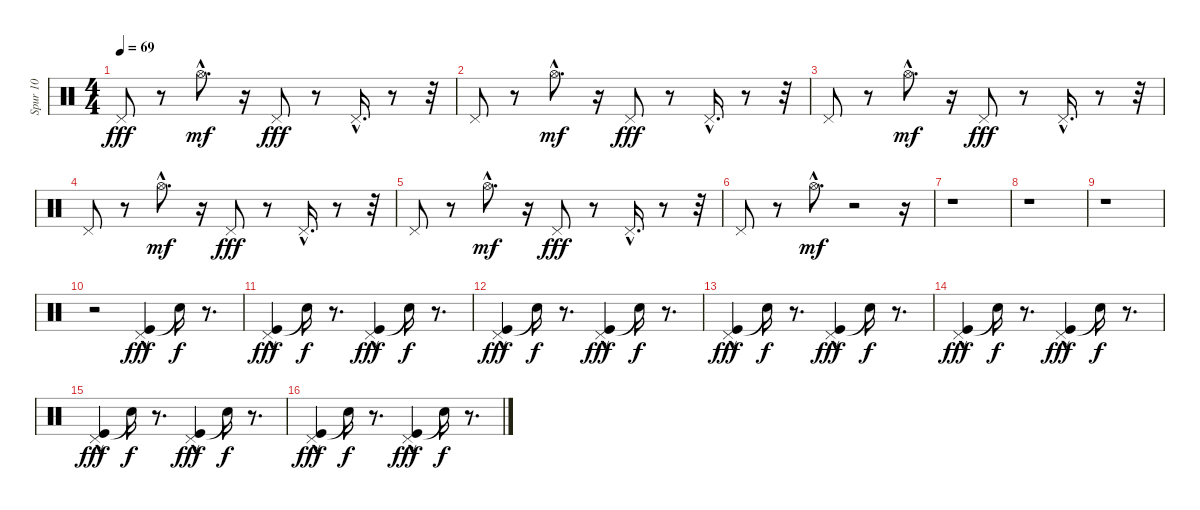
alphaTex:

\track ("Spur 10" "Spur 10") {instrument percussion}
\staff {score}
\articulation defaults
\ts (4 4)
\tempo 69
\clef neutral
\ks c "Pedal Hi-Hat (hit)".8{dy fff}
r.8 "Hi-Hat (open)"{hac}.8{d dy mf} r.16 "Pedal Hi-Hat (hit)".8{dy fff} r.8 "Pedal Hi-Hat (hit)"{hac}.16{d} r.8 r.32 |
"Pedal Hi-Hat (hit)".8 r.8 "Hi-Hat (open)"{hac}.8{d dy mf} r.16 "Pedal Hi-Hat (hit)".8{dy fff} r.8 "Pedal Hi-Hat (hit)"{hac}.16{d} r.8 r.32 |
"Pedal Hi-Hat (hit)".8 r.8 "Hi-Hat (open)"{hac}.8{d dy mf} r.16 "Pedal Hi-Hat (hit)".8{dy fff} r.8 "Pedal Hi-Hat (hit)"{hac}.16{d} r.8 r.32 |
"Pedal Hi-Hat (hit)".8 r.8 "Hi-Hat (open)"{hac}.8{d dy mf} r.16 "Pedal Hi-Hat (hit)".8{dy fff} r.8 "Pedal Hi-Hat (hit)"{hac}.16{d} r.8 r.32 |
"Pedal Hi-Hat (hit)".8 r.8 "Hi-Hat (open)"{hac}.8{d dy mf} r.16 "Pedal Hi-Hat (hit)".8{dy fff} r.8 "Pedal Hi-Hat (hit)"{hac}.16{d} r.8 r.32 |
"Pedal Hi-Hat (hit)".8 r.8 "Hi-Hat (open)"{hac}.8{d dy mf} r.2 r.16 |
r.1 |
r.1 |
r.1 |
r.2 ("Kick (hit)"{hac} "Pedal Hi-Hat (hit)").4{dy fff} "Snare (hit)"{t}.16{dy f} r.8{d} |
("Kick (hit)"{hac} "Pedal Hi-Hat (hit)").4{dy fff} "Snare (hit)"{t}.16{dy f} r.8{d} ("Kick (hit)"{hac} "Pedal Hi-Hat (hit)").4{dy fff} "Snare (hit)"{t}.16{dy f} r.8{d} |
("Kick (hit)"{hac} "Pedal Hi-Hat (hit)").4{dy fff} "Snare (hit)"{t}.16{dy f} r.8{d} ("Kick (hit)"{hac} "Pedal Hi-Hat (hit)").4{dy fff} "Snare (hit)"{t}.16{dy f} r.8{d} |
("Kick (hit)"{hac} "Pedal Hi-Hat (hit)").4{dy fff} "Snare (hit)"{t}.16{dy f} r.8{d} ("Kick (hit)"{hac} "Pedal Hi-Hat (hit)").4{dy fff} "Snare (hit)"{t}.16{dy f} r.8{d} |
("Kick (hit)"{hac} "Pedal Hi-Hat (hit)").4{dy fff} "Snare (hit)"{t}.16{dy f} r.8{d} ("Kick (hit)"{hac} "Pedal Hi-Hat (hit)").4{dy fff} "Snare (hit)"{t}.16{dy f} r.8{d} |
("Kick (hit)"{hac} "Pedal Hi-Hat (hit)").4{dy fff} "Snare (hit)"{t}.16{dy f} r.8{d} ("Kick (hit)"{hac} "Pedal Hi-Hat (hit)").4{dy fff} "Snare (hit)"{t}.16{dy f} r.8{d} |
("Kick (hit)"{hac} "Pedal Hi-Hat (hit)").4{dy fff} "Snare (hit)"{t}.16{dy f} r.8{d} ("Kick (hit)"{hac} "Pedal Hi-Hat (hit)").4{dy fff} "Snare (hit)"{t}.16{dy f} r.8{d}
